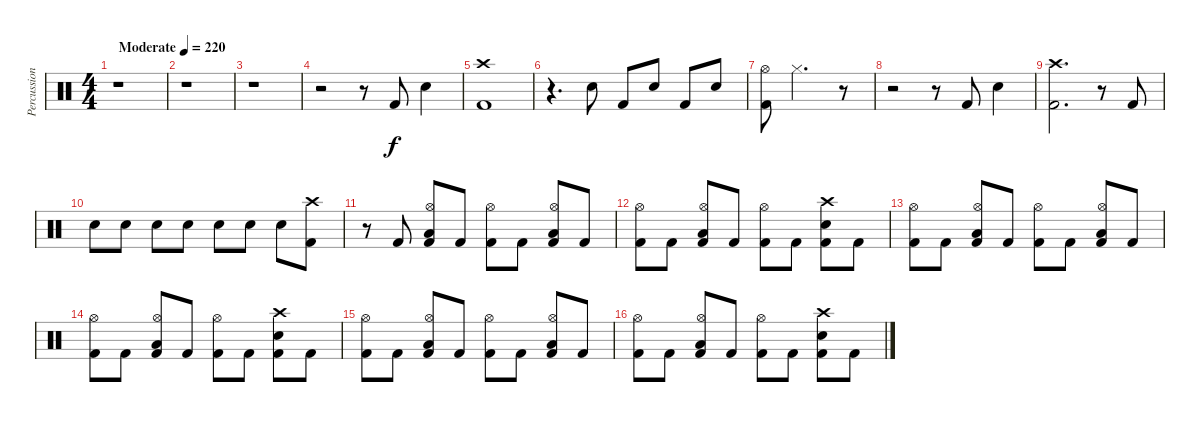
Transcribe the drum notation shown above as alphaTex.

\track ("Percussions" "Percussion") {instrument percussion}
\staff {score}
\articulation defaults
\ts (4 4)
\tempo (220 "Moderate")
\clef neutral
\ks c
r.1{dy f} |
r.1 |
r.1 |
r.2 r.8 "Kick (hit) 2".8 "Electric Snare (hit)".4 |
("Crash high (hit)" "Kick (hit) 2").1 |
r.4{d} "Electric Snare (hit)".8 "Kick (hit) 2".8 "Electric Snare (hit)".8 "Kick (hit) 2".8 "Electric Snare (hit)".8 |
("Hi-Hat (open)" "Kick (hit) 2").8 "Hi-Hat (closed)".2{d} r.8 |
r.2 r.8 "Kick (hit) 2".8 "Electric Snare (hit)".4 |
("Crash high (hit)" "Kick (hit) 2").2{d} r.8 "Kick (hit) 2".8 |
"Electric Snare (hit)".8 "Electric Snare (hit)".8 "Electric Snare (hit)".8 "Electric Snare (hit)".8 "Electric Snare (hit)".8 "Electric Snare (hit)".8 "Electric Snare (hit)".8 ("Crash high (hit)" "Kick (hit) 2").8 |
r.8 "Kick (hit) 2".8 ("Hi-Hat (open)" "Low Tom (hit)" "Kick (hit) 2").8 "Kick (hit) 2".8 ("Hi-Hat (open)" "Kick (hit) 2").8 "Kick (hit) 2".8 ("Hi-Hat (open)" "Low Tom (hit)" "Kick (hit) 2").8 "Kick (hit) 2".8 |
("Hi-Hat (open)" "Kick (hit) 2").8 "Kick (hit) 2".8 ("Hi-Hat (open)" "Low Tom (hit)" "Kick (hit) 2").8 "Kick (hit) 2".8 ("Hi-Hat (open)" "Kick (hit) 2").8 "Kick (hit) 2".8 ("Crash high (hit)" "Electric Snare (hit)" "Kick (hit) 2").8 "Kick (hit) 2".8 |
("Hi-Hat (open)" "Kick (hit) 2").8 "Kick (hit) 2".8 ("Hi-Hat (open)" "Low Tom (hit)" "Kick (hit) 2").8 "Kick (hit) 2".8 ("Hi-Hat (open)" "Kick (hit) 2").8 "Kick (hit) 2".8 ("Hi-Hat (open)" "Low Tom (hit)" "Kick (hit) 2").8 "Kick (hit) 2".8 |
("Hi-Hat (open)" "Kick (hit) 2").8 "Kick (hit) 2".8 ("Hi-Hat (open)" "Low Tom (hit)" "Kick (hit) 2").8 "Kick (hit) 2".8 ("Hi-Hat (open)" "Kick (hit) 2").8 "Kick (hit) 2".8 ("Crash high (hit)" "Electric Snare (hit)" "Kick (hit) 2").8 "Kick (hit) 2".8 |
("Hi-Hat (open)" "Kick (hit) 2").8 "Kick (hit) 2".8 ("Hi-Hat (open)" "Low Tom (hit)" "Kick (hit) 2").8 "Kick (hit) 2".8 ("Hi-Hat (open)" "Kick (hit) 2").8 "Kick (hit) 2".8 ("Hi-Hat (open)" "Low Tom (hit)" "Kick (hit) 2").8 "Kick (hit) 2".8 |
("Hi-Hat (open)" "Kick (hit) 2").8 "Kick (hit) 2".8 ("Hi-Hat (open)" "Low Tom (hit)" "Kick (hit) 2").8 "Kick (hit) 2".8 ("Hi-Hat (open)" "Kick (hit) 2").8 "Kick (hit) 2".8 ("Crash high (hit)" "Electric Snare (hit)" "Kick (hit) 2").8 "Kick (hit) 2".8
